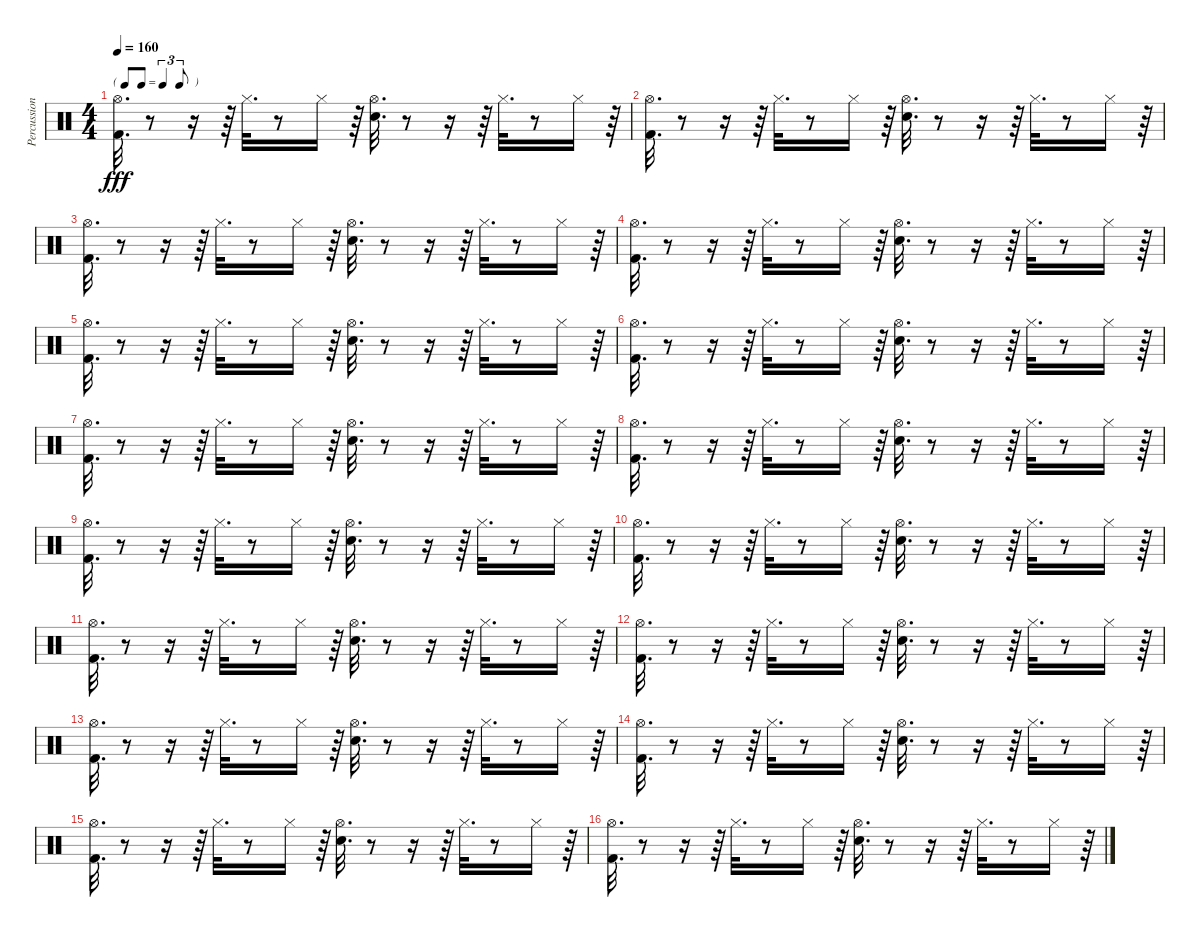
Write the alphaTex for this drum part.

\track ("Percussions" "Percussion") {instrument percussion}
\staff {score}
\articulation defaults
\ts (4 4)
\tf triplet8th
\tempo 160
\clef neutral
\ks c
("Hi-Hat (open)" "Kick (hit) 2").32{d dy fff} r.8 r.16 r.64 "Hi-Hat (closed)".32{d} r.8 "Hi-Hat (closed)".16 r.64 ("Hi-Hat (open)" "Electric Snare (hit)").32{d} r.8 r.16 r.64 "Hi-Hat (closed)".32{d} r.8 "Hi-Hat (closed)".16 r.64 |
("Hi-Hat (open)" "Kick (hit) 2").32{d} r.8 r.16 r.64 "Hi-Hat (closed)".32{d} r.8 "Hi-Hat (closed)".16 r.64 ("Hi-Hat (open)" "Electric Snare (hit)").32{d} r.8 r.16 r.64 "Hi-Hat (closed)".32{d} r.8 "Hi-Hat (closed)".16 r.64 |
("Hi-Hat (open)" "Kick (hit) 2").32{d} r.8 r.16 r.64 "Hi-Hat (closed)".32{d} r.8 "Hi-Hat (closed)".16 r.64 ("Hi-Hat (open)" "Electric Snare (hit)").32{d} r.8 r.16 r.64 "Hi-Hat (closed)".32{d} r.8 "Hi-Hat (closed)".16 r.64 |
("Hi-Hat (open)" "Kick (hit) 2").32{d} r.8 r.16 r.64 "Hi-Hat (closed)".32{d} r.8 "Hi-Hat (closed)".16 r.64 ("Hi-Hat (open)" "Electric Snare (hit)").32{d} r.8 r.16 r.64 "Hi-Hat (closed)".32{d} r.8 "Hi-Hat (closed)".16 r.64 |
("Hi-Hat (open)" "Kick (hit) 2").32{d} r.8 r.16 r.64 "Hi-Hat (closed)".32{d} r.8 "Hi-Hat (closed)".16 r.64 ("Hi-Hat (open)" "Electric Snare (hit)").32{d} r.8 r.16 r.64 "Hi-Hat (closed)".32{d} r.8 "Hi-Hat (closed)".16 r.64 |
("Hi-Hat (open)" "Kick (hit) 2").32{d} r.8 r.16 r.64 "Hi-Hat (closed)".32{d} r.8 "Hi-Hat (closed)".16 r.64 ("Hi-Hat (open)" "Electric Snare (hit)").32{d} r.8 r.16 r.64 "Hi-Hat (closed)".32{d} r.8 "Hi-Hat (closed)".16 r.64 |
("Hi-Hat (open)" "Kick (hit) 2").32{d} r.8 r.16 r.64 "Hi-Hat (closed)".32{d} r.8 "Hi-Hat (closed)".16 r.64 ("Hi-Hat (open)" "Electric Snare (hit)").32{d} r.8 r.16 r.64 "Hi-Hat (closed)".32{d} r.8 "Hi-Hat (closed)".16 r.64 |
("Hi-Hat (open)" "Kick (hit) 2").32{d} r.8 r.16 r.64 "Hi-Hat (closed)".32{d} r.8 "Hi-Hat (closed)".16 r.64 ("Hi-Hat (open)" "Electric Snare (hit)").32{d} r.8 r.16 r.64 "Hi-Hat (closed)".32{d} r.8 "Hi-Hat (closed)".16 r.64 |
("Hi-Hat (open)" "Kick (hit) 2").32{d} r.8 r.16 r.64 "Hi-Hat (closed)".32{d} r.8 "Hi-Hat (closed)".16 r.64 ("Hi-Hat (open)" "Electric Snare (hit)").32{d} r.8 r.16 r.64 "Hi-Hat (closed)".32{d} r.8 "Hi-Hat (closed)".16 r.64 |
("Hi-Hat (open)" "Kick (hit) 2").32{d} r.8 r.16 r.64 "Hi-Hat (closed)".32{d} r.8 "Hi-Hat (closed)".16 r.64 ("Hi-Hat (open)" "Electric Snare (hit)").32{d} r.8 r.16 r.64 "Hi-Hat (closed)".32{d} r.8 "Hi-Hat (closed)".16 r.64 |
("Hi-Hat (open)" "Kick (hit) 2").32{d} r.8 r.16 r.64 "Hi-Hat (closed)".32{d} r.8 "Hi-Hat (closed)".16 r.64 ("Hi-Hat (open)" "Electric Snare (hit)").32{d} r.8 r.16 r.64 "Hi-Hat (closed)".32{d} r.8 "Hi-Hat (closed)".16 r.64 |
("Hi-Hat (open)" "Kick (hit) 2").32{d} r.8 r.16 r.64 "Hi-Hat (closed)".32{d} r.8 "Hi-Hat (closed)".16 r.64 ("Hi-Hat (open)" "Electric Snare (hit)").32{d} r.8 r.16 r.64 "Hi-Hat (closed)".32{d} r.8 "Hi-Hat (closed)".16 r.64 |
("Hi-Hat (open)" "Kick (hit) 2").32{d} r.8 r.16 r.64 "Hi-Hat (closed)".32{d} r.8 "Hi-Hat (closed)".16 r.64 ("Hi-Hat (open)" "Electric Snare (hit)").32{d} r.8 r.16 r.64 "Hi-Hat (closed)".32{d} r.8 "Hi-Hat (closed)".16 r.64 |
("Hi-Hat (open)" "Kick (hit) 2").32{d} r.8 r.16 r.64 "Hi-Hat (closed)".32{d} r.8 "Hi-Hat (closed)".16 r.64 ("Hi-Hat (open)" "Electric Snare (hit)").32{d} r.8 r.16 r.64 "Hi-Hat (closed)".32{d} r.8 "Hi-Hat (closed)".16 r.64 |
("Hi-Hat (open)" "Kick (hit) 2").32{d} r.8 r.16 r.64 "Hi-Hat (closed)".32{d} r.8 "Hi-Hat (closed)".16 r.64 ("Hi-Hat (open)" "Electric Snare (hit)").32{d} r.8 r.16 r.64 "Hi-Hat (closed)".32{d} r.8 "Hi-Hat (closed)".16 r.64 |
("Hi-Hat (open)" "Kick (hit) 2").32{d} r.8 r.16 r.64 "Hi-Hat (closed)".32{d} r.8 "Hi-Hat (closed)".16 r.64 ("Hi-Hat (open)" "Electric Snare (hit)").32{d} r.8 r.16 r.64 "Hi-Hat (closed)".32{d} r.8 "Hi-Hat (closed)".16 r.64
